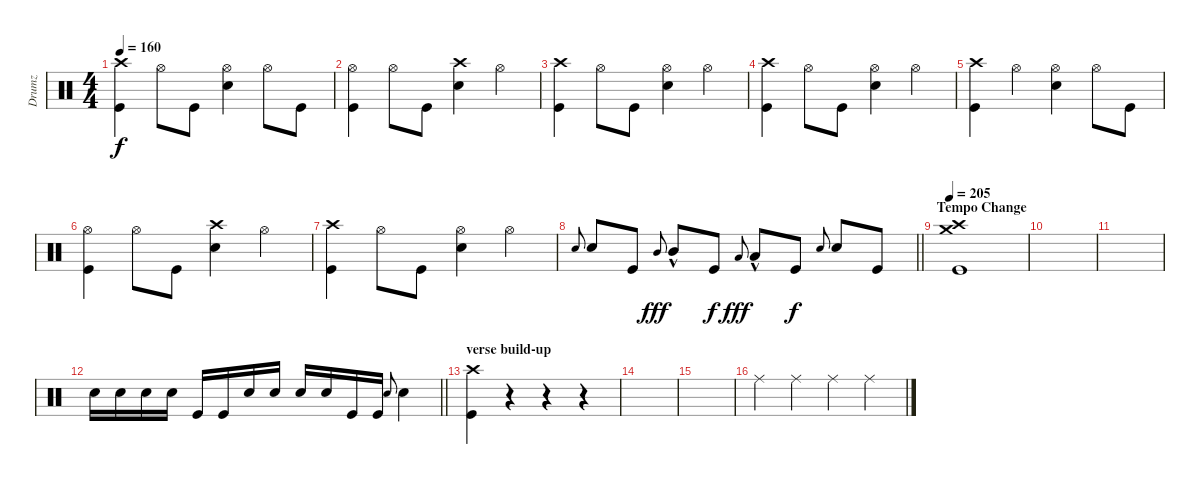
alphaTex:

\track ("Drumz" "Drumz") {instrument percussion}
\staff {score}
\articulation defaults
\ts (4 4)
\tempo 160
\clef neutral
\ks c
("Crash high (hit)" "Kick (hit)").4{dy f} "Hi-Hat (open)".8 "Kick (hit)".8 ("Hi-Hat (open)" "Electric Snare (hit)").4 "Hi-Hat (open)".8 "Kick (hit)".8 |
("Hi-Hat (open)" "Kick (hit)").4 "Hi-Hat (open)".8 "Kick (hit)".8 ("Crash high (hit)" "Electric Snare (hit)").4 "Hi-Hat (open)".4 |
("Crash high (hit)" "Kick (hit)").4 "Hi-Hat (open)".8 "Kick (hit)".8 ("Hi-Hat (open)" "Electric Snare (hit)").4 "Hi-Hat (open)".4 |
("Crash high (hit)" "Kick (hit)").4 "Hi-Hat (open)".8 "Kick (hit)".8 ("Hi-Hat (open)" "Electric Snare (hit)").4 "Hi-Hat (open)".4 |
("Crash high (hit)" "Kick (hit)").4 "Hi-Hat (open)".4 ("Hi-Hat (open)" "Electric Snare (hit)").4 "Hi-Hat (open)".8 "Kick (hit)".8 |
("Hi-Hat (open)" "Kick (hit)").4 "Hi-Hat (open)".8 "Kick (hit)".8 ("Crash high (hit)" "Electric Snare (hit)").4 "Hi-Hat (open)".4 |
("Crash high (hit)" "Kick (hit)").4 "Hi-Hat (open)".8 "Kick (hit)".8 ("Hi-Hat (open)" "Electric Snare (hit)").4 "Hi-Hat (open)".4 |
\barLineRight lightlight "Electric Snare (hit)".8{gr onbeat} "Electric Snare (hit)".8 "Kick (hit)".8 "Mid Tom (hit)".8{gr onbeat dy fff} "Mid Tom (hit)"{hac}.8 "Kick (hit)".8{dy f} "Low Tom (hit)".8{gr onbeat dy fff} "Low Tom (hit)"{hac}.8 "Kick (hit)".8{dy f} "Electric Snare (hit)".8{gr onbeat} "Electric Snare (hit)".8 "Kick (hit)".8
|
\section ("" "Tempo Change")
\tempo 205
("Crash medium (hit)" "Crash high (hit)" "Kick (hit)").1 |
|
|
\barLineRight lightlight "Electric Snare (hit)".16 "Electric Snare (hit)".16 "Electric Snare (hit)".16 "Electric Snare (hit)".16 "Kick (hit)".16 "Kick (hit)".16 "Electric Snare (hit)".16 "Electric Snare (hit)".16 "Electric Snare (hit)".16 "Electric Snare (hit)".16 "Kick (hit)".16 "Kick (hit)".16 "Electric Snare (hit)".8{gr onbeat} "Electric Snare (hit)".4
|
\section ("" "verse build-up")
("Crash high (hit)" "Kick (hit)").4 r.4{volume 0} r.4 r.4 |
|
|
"Ride (middle)".4{volume 13} "Ride (middle)".4 "Ride (middle)".4 "Ride (middle)".4
